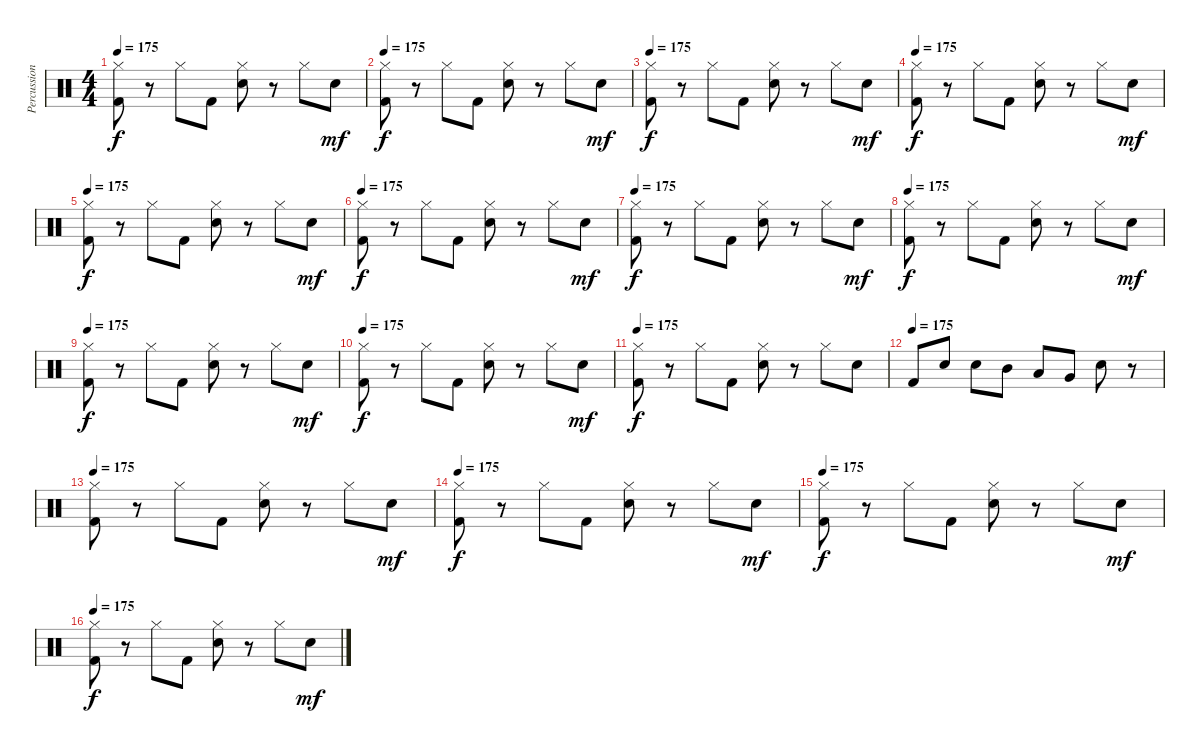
\track ("Percussions" "Percussion") {instrument percussion}
\staff {score}
\articulation defaults
\ts (4 4)
\tempo 175
\clef neutral
\ks c
("Hi-Hat (closed)" "Kick (hit) 2").8{dy f} r.8 "Hi-Hat (closed)".8 "Kick (hit) 2".8 ("Hi-Hat (closed)" "Snare (hit) 2").8 r.8 "Hi-Hat (closed)".8 "Snare (hit) 2".8{dy mf} |
\tempo 175
("Hi-Hat (closed)" "Kick (hit) 2").8{dy f} r.8 "Hi-Hat (closed)".8 "Kick (hit) 2".8 ("Hi-Hat (closed)" "Snare (hit) 2").8 r.8 "Hi-Hat (closed)".8 "Snare (hit) 2".8{dy mf} |
\tempo 175
("Hi-Hat (closed)" "Kick (hit) 2").8{dy f} r.8 "Hi-Hat (closed)".8 "Kick (hit) 2".8 ("Hi-Hat (closed)" "Snare (hit) 2").8 r.8 "Hi-Hat (closed)".8 "Snare (hit) 2".8{dy mf} |
\tempo 175
("Hi-Hat (closed)" "Kick (hit) 2").8{dy f} r.8 "Hi-Hat (closed)".8 "Kick (hit) 2".8 ("Hi-Hat (closed)" "Snare (hit) 2").8 r.8 "Hi-Hat (closed)".8 "Snare (hit) 2".8{dy mf} |
\tempo 175
("Hi-Hat (closed)" "Kick (hit) 2").8{dy f} r.8 "Hi-Hat (closed)".8 "Kick (hit) 2".8 ("Hi-Hat (closed)" "Snare (hit) 2").8 r.8 "Hi-Hat (closed)".8 "Snare (hit) 2".8{dy mf} |
\tempo 175
("Hi-Hat (closed)" "Kick (hit) 2").8{dy f} r.8 "Hi-Hat (closed)".8 "Kick (hit) 2".8 ("Hi-Hat (closed)" "Snare (hit) 2").8 r.8 "Hi-Hat (closed)".8 "Snare (hit) 2".8{dy mf} |
\tempo 175
("Hi-Hat (closed)" "Kick (hit) 2").8{dy f} r.8 "Hi-Hat (closed)".8 "Kick (hit) 2".8 ("Hi-Hat (closed)" "Snare (hit) 2").8 r.8 "Hi-Hat (closed)".8 "Snare (hit) 2".8{dy mf} |
\tempo 175
("Hi-Hat (closed)" "Kick (hit) 2").8{dy f} r.8 "Hi-Hat (closed)".8 "Kick (hit) 2".8 ("Hi-Hat (closed)" "Snare (hit) 2").8 r.8 "Hi-Hat (closed)".8 "Snare (hit) 2".8{dy mf} |
\tempo 175
("Hi-Hat (closed)" "Kick (hit) 2").8{dy f} r.8 "Hi-Hat (closed)".8 "Kick (hit) 2".8 ("Hi-Hat (closed)" "Snare (hit) 2").8 r.8 "Hi-Hat (closed)".8 "Snare (hit) 2".8{dy mf} |
\tempo 175
("Hi-Hat (closed)" "Kick (hit) 2").8{dy f} r.8 "Hi-Hat (closed)".8 "Kick (hit) 2".8 ("Hi-Hat (closed)" "Snare (hit) 2").8 r.8 "Hi-Hat (closed)".8 "Snare (hit) 2".8{dy mf} |
\tempo 175
("Hi-Hat (closed)" "Kick (hit) 2").8{dy f} r.8 "Hi-Hat (closed)".8 "Kick (hit) 2".8 ("Hi-Hat (closed)" "Snare (hit) 2").8 r.8 "Hi-Hat (closed)".8 "Snare (hit) 2".8 |
\tempo (175)
"Kick (hit) 2".8 "Snare (hit) 2".8 "Snare (hit) 2".8 "Mid Tom (hit)".8 "Low Tom (hit)".8 "Very Low Tom (hit)".8 "Snare (hit) 2".8 r.8 |
\tempo 175
("Hi-Hat (closed)" "Kick (hit) 2").8 r.8 "Hi-Hat (closed)".8 "Kick (hit) 2".8 ("Hi-Hat (closed)" "Snare (hit) 2").8 r.8 "Hi-Hat (closed)".8 "Snare (hit) 2".8{dy mf} |
\tempo 175
("Hi-Hat (closed)" "Kick (hit) 2").8{dy f} r.8 "Hi-Hat (closed)".8 "Kick (hit) 2".8 ("Hi-Hat (closed)" "Snare (hit) 2").8 r.8 "Hi-Hat (closed)".8 "Snare (hit) 2".8{dy mf} |
\tempo 175
("Hi-Hat (closed)" "Kick (hit) 2").8{dy f} r.8 "Hi-Hat (closed)".8 "Kick (hit) 2".8 ("Hi-Hat (closed)" "Snare (hit) 2").8 r.8 "Hi-Hat (closed)".8 "Snare (hit) 2".8{dy mf} |
\tempo 175
("Hi-Hat (closed)" "Kick (hit) 2").8{dy f} r.8 "Hi-Hat (closed)".8 "Kick (hit) 2".8 ("Hi-Hat (closed)" "Snare (hit) 2").8 r.8 "Hi-Hat (closed)".8 "Snare (hit) 2".8{dy mf}
